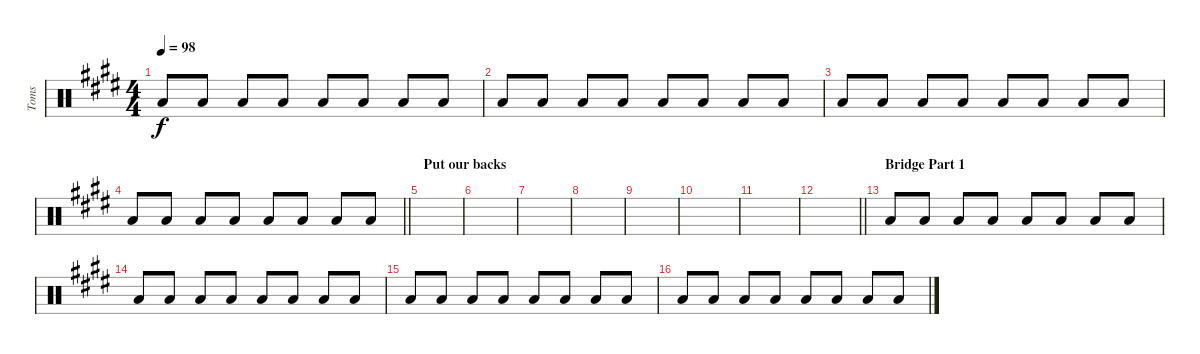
\track ("Toms" "Toms") {instrument percussion}
\staff {score}
\articulation defaults
\ts (4 4)
\tempo 98
\clef neutral
\ks c#minor "Low Tom (hit)".8{dy f} "Low Floor Tom (hit)".8 "Low Floor Tom (hit)".8 "Low Floor Tom (hit)".8 "Low Tom (hit)".8 "Low Floor Tom (hit)".8 "Low Floor Tom (hit)".8 "Low Floor Tom (hit)".8
|
"Low Tom (hit)".8 "Low Floor Tom (hit)".8 "Low Floor Tom (hit)".8 "Low Floor Tom (hit)".8 "Low Tom (hit)".8 "Low Floor Tom (hit)".8 "Low Floor Tom (hit)".8 "Low Floor Tom (hit)".8 |
"Low Tom (hit)".8 "Low Floor Tom (hit)".8 "Low Floor Tom (hit)".8 "Low Floor Tom (hit)".8 "Low Tom (hit)".8 "Low Floor Tom (hit)".8 "Low Floor Tom (hit)".8 "Low Floor Tom (hit)".8 |
\barLineRight lightlight "Low Tom (hit)".8 "Low Floor Tom (hit)".8 "Low Floor Tom (hit)".8 "Low Floor Tom (hit)".8 "Low Tom (hit)".8 "Low Floor Tom (hit)".8 "Low Floor Tom (hit)".8 "Low Floor Tom (hit)".8
|
\section ("" "Put our backs")
|
|
|
|
|
|
|
\barLineRight lightlight
|
\section ("" "Bridge Part 1")
"Low Tom (hit)".8 "Low Floor Tom (hit)".8 "Low Floor Tom (hit)".8 "Low Floor Tom (hit)".8 "Low Tom (hit)".8 "Low Floor Tom (hit)".8 "Low Floor Tom (hit)".8 "Low Floor Tom (hit)".8 |
"Low Tom (hit)".8 "Low Floor Tom (hit)".8 "Low Floor Tom (hit)".8 "Low Floor Tom (hit)".8 "Low Tom (hit)".8 "Low Floor Tom (hit)".8 "Low Floor Tom (hit)".8 "Low Floor Tom (hit)".8 |
"Low Tom (hit)".8 "Low Floor Tom (hit)".8 "Low Floor Tom (hit)".8 "Low Floor Tom (hit)".8 "Low Tom (hit)".8 "Low Floor Tom (hit)".8 "Low Floor Tom (hit)".8 "Low Floor Tom (hit)".8 |
"Low Tom (hit)".8 "Low Floor Tom (hit)".8 "Low Floor Tom (hit)".8 "Low Floor Tom (hit)".8 "Low Tom (hit)".8 "Low Floor Tom (hit)".8 "Low Floor Tom (hit)".8 "Low Floor Tom (hit)".8
